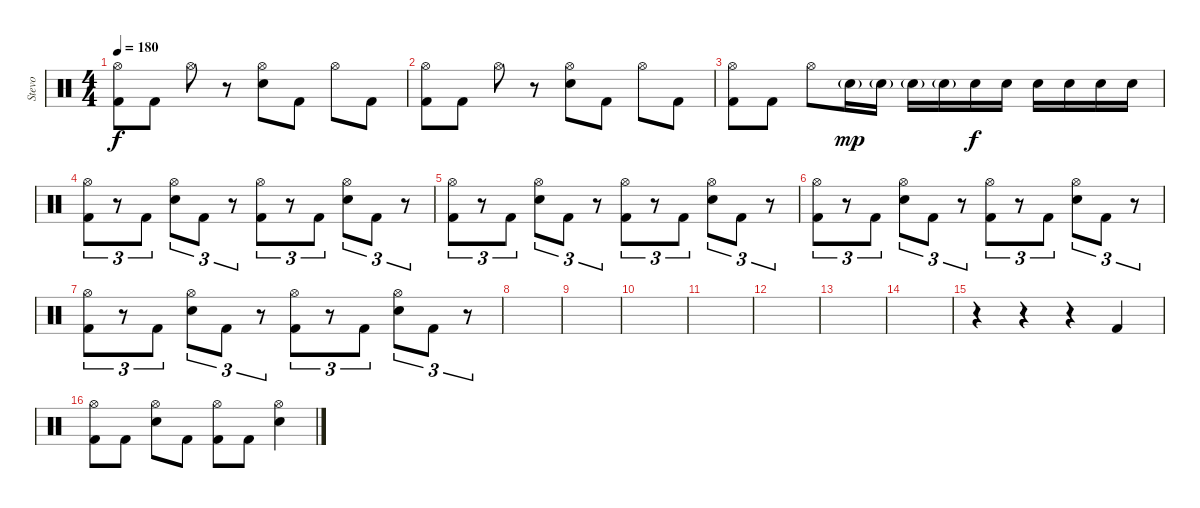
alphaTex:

\track ("Stevo" "Stevo") {instrument percussion}
\staff {score}
\articulation defaults
\ts (4 4)
\tempo 180
\clef neutral
\ks c
("Hi-Hat (open)" "Kick (hit) 2").8{dy f} "Kick (hit) 2".8 "Hi-Hat (open)".8 r.8 ("Hi-Hat (open)" "Snare (hit) 2").8 "Kick (hit) 2".8 "Hi-Hat (open)".8 "Kick (hit) 2".8 |
("Hi-Hat (open)" "Kick (hit) 2").8 "Kick (hit) 2".8 "Hi-Hat (open)".8 r.8 ("Hi-Hat (open)" "Snare (hit) 2").8 "Kick (hit) 2".8 "Hi-Hat (open)".8 "Kick (hit) 2".8 |
("Hi-Hat (open)" "Kick (hit) 2").8 "Kick (hit) 2".8 "Hi-Hat (open)".8 "Electric Snare (hit)"{g}.16{dy mp} "Electric Snare (hit)"{g}.16 "Electric Snare (hit)"{g}.16 "Electric Snare (hit)"{g}.16 "Electric Snare (hit)".16{dy f} "Electric Snare (hit)".16 "Electric Snare (hit)".16 "Electric Snare (hit)".16 "Electric Snare (hit)".16 "Electric Snare (hit)".16 |
("Hi-Hat (open)" "Kick (hit) 2").8{tu (3 2)} r.8{tu (3 2)} "Kick (hit) 2".8{tu (3 2)} ("Hi-Hat (open)" "Snare (hit) 2").8{tu (3 2)} "Kick (hit) 2".8{tu (3 2)} r.8{tu (3 2)} ("Hi-Hat (open)" "Kick (hit) 2").8{tu (3 2)} r.8{tu (3 2)} "Kick (hit) 2".8{tu (3 2)} ("Hi-Hat (open)" "Snare (hit) 2").8{tu (3 2)} "Kick (hit) 2".8{tu (3 2)} r.8{tu (3 2)} |
("Hi-Hat (open)" "Kick (hit) 2").8{tu (3 2)} r.8{tu (3 2)} "Kick (hit) 2".8{tu (3 2)} ("Hi-Hat (open)" "Snare (hit) 2").8{tu (3 2)} "Kick (hit) 2".8{tu (3 2)} r.8{tu (3 2)} ("Hi-Hat (open)" "Kick (hit) 2").8{tu (3 2)} r.8{tu (3 2)} "Kick (hit) 2".8{tu (3 2)} ("Hi-Hat (open)" "Snare (hit) 2").8{tu (3 2)} "Kick (hit) 2".8{tu (3 2)} r.8{tu (3 2)} |
("Hi-Hat (open)" "Kick (hit) 2").8{tu (3 2)} r.8{tu (3 2)} "Kick (hit) 2".8{tu (3 2)} ("Hi-Hat (open)" "Snare (hit) 2").8{tu (3 2)} "Kick (hit) 2".8{tu (3 2)} r.8{tu (3 2)} ("Hi-Hat (open)" "Kick (hit) 2").8{tu (3 2)} r.8{tu (3 2)} "Kick (hit) 2".8{tu (3 2)} ("Hi-Hat (open)" "Snare (hit) 2").8{tu (3 2)} "Kick (hit) 2".8{tu (3 2)} r.8{tu (3 2)} |
("Hi-Hat (open)" "Kick (hit) 2").8{tu (3 2)} r.8{tu (3 2)} "Kick (hit) 2".8{tu (3 2)} ("Hi-Hat (open)" "Snare (hit) 2").8{tu (3 2)} "Kick (hit) 2".8{tu (3 2)} r.8{tu (3 2)} ("Hi-Hat (open)" "Kick (hit) 2").8{tu (3 2)} r.8{tu (3 2)} "Kick (hit) 2".8{tu (3 2)} ("Hi-Hat (open)" "Snare (hit) 2").8{tu (3 2)} "Kick (hit) 2".8{tu (3 2)} r.8{tu (3 2)} |
|
|
|
|
|
|
|
r.4 r.4 r.4 "Kick (hit) 2".4 |
("Hi-Hat (open)" "Kick (hit) 2").8 "Kick (hit) 2".8 ("Hi-Hat (open)" "Snare (hit) 2").8 "Kick (hit) 2".8 ("Hi-Hat (open)" "Kick (hit) 2").8 "Kick (hit) 2".8 ("Hi-Hat (open)" "Snare (hit) 2").4
